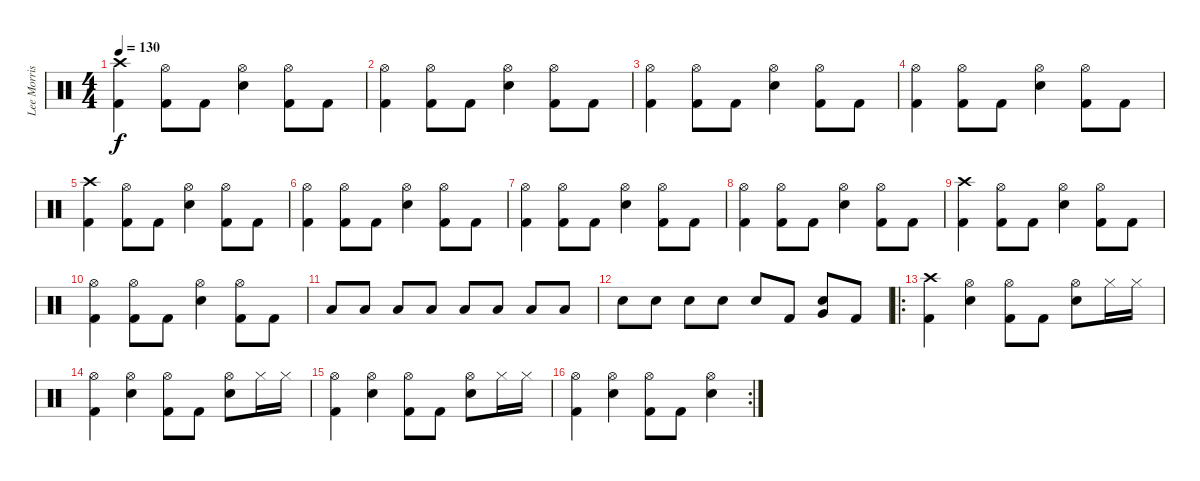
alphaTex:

\track ("Lee Morris" "Lee Morris") {instrument percussion}
\staff {score}
\articulation defaults
\ts (4 4)
\tempo 130
\clef neutral
\ks c
("Crash high (hit)" "Kick (hit) 2").4{dy f} ("Hi-Hat (open)" "Kick (hit) 2").8 "Kick (hit) 2".8 ("Hi-Hat (open)" "Electric Snare (hit)").4 ("Hi-Hat (open)" "Kick (hit) 2").8 "Kick (hit) 2".8 |
("Hi-Hat (open)" "Kick (hit) 2").4 ("Hi-Hat (open)" "Kick (hit) 2").8 "Kick (hit) 2".8 ("Hi-Hat (open)" "Electric Snare (hit)").4 ("Hi-Hat (open)" "Kick (hit) 2").8 "Kick (hit) 2".8 |
("Hi-Hat (open)" "Kick (hit) 2").4 ("Hi-Hat (open)" "Kick (hit) 2").8 "Kick (hit) 2".8 ("Hi-Hat (open)" "Electric Snare (hit)").4 ("Hi-Hat (open)" "Kick (hit) 2").8 "Kick (hit) 2".8 |
("Hi-Hat (open)" "Kick (hit) 2").4 ("Hi-Hat (open)" "Kick (hit) 2").8 "Kick (hit) 2".8 ("Hi-Hat (open)" "Electric Snare (hit)").4 ("Hi-Hat (open)" "Kick (hit) 2").8 "Kick (hit) 2".8 |
("Crash high (hit)" "Kick (hit) 2").4 ("Hi-Hat (open)" "Kick (hit) 2").8 "Kick (hit) 2".8 ("Hi-Hat (open)" "Electric Snare (hit)").4 ("Hi-Hat (open)" "Kick (hit) 2").8 "Kick (hit) 2".8 |
("Hi-Hat (open)" "Kick (hit) 2").4 ("Hi-Hat (open)" "Kick (hit) 2").8 "Kick (hit) 2".8 ("Hi-Hat (open)" "Electric Snare (hit)").4 ("Hi-Hat (open)" "Kick (hit) 2").8 "Kick (hit) 2".8 |
("Hi-Hat (open)" "Kick (hit) 2").4 ("Hi-Hat (open)" "Kick (hit) 2").8 "Kick (hit) 2".8 ("Hi-Hat (open)" "Electric Snare (hit)").4 ("Hi-Hat (open)" "Kick (hit) 2").8 "Kick (hit) 2".8 |
("Hi-Hat (open)" "Kick (hit) 2").4 ("Hi-Hat (open)" "Kick (hit) 2").8 "Kick (hit) 2".8 ("Hi-Hat (open)" "Electric Snare (hit)").4 ("Hi-Hat (open)" "Kick (hit) 2").8 "Kick (hit) 2".8 |
("Crash high (hit)" "Kick (hit) 2").4 ("Hi-Hat (open)" "Kick (hit) 2").8 "Kick (hit) 2".8 ("Hi-Hat (open)" "Electric Snare (hit)").4 ("Hi-Hat (open)" "Kick (hit) 2").8 "Kick (hit) 2".8 |
("Hi-Hat (open)" "Kick (hit) 2").4 ("Hi-Hat (open)" "Kick (hit) 2").8 "Kick (hit) 2".8 ("Hi-Hat (open)" "Electric Snare (hit)").4 ("Hi-Hat (open)" "Kick (hit) 2").8 "Kick (hit) 2".8 |
"Low Tom (hit)".8 "Low Tom (hit)".8 "Low Tom (hit)".8 "Low Tom (hit)".8 "Low Tom (hit)".8 "Low Tom (hit)".8 "Low Tom (hit)".8 "Low Tom (hit)".8 |
"Electric Snare (hit)".8 "Electric Snare (hit)".8 "Electric Snare (hit)".8 "Electric Snare (hit)".8 "Electric Snare (hit)".8 "Kick (hit) 2".8 ("Electric Snare (hit)" "Very Low Tom (hit)").8 "Kick (hit) 2".8 |
\ro
("Crash high (hit)" "Kick (hit) 2").4 ("Hi-Hat (open)" "Electric Snare (hit)").4 ("Hi-Hat (open)" "Kick (hit) 2").8 "Kick (hit) 2".8 ("Hi-Hat (open)" "Electric Snare (hit)").8 "Hi-Hat (closed)".16 "Hi-Hat (closed)".16 |
("Hi-Hat (open)" "Kick (hit) 2").4 ("Hi-Hat (open)" "Electric Snare (hit)").4 ("Hi-Hat (open)" "Kick (hit) 2").8 "Kick (hit) 2".8 ("Hi-Hat (open)" "Electric Snare (hit)").8 "Hi-Hat (closed)".16 "Hi-Hat (closed)".16 |
("Hi-Hat (open)" "Kick (hit) 2").4 ("Hi-Hat (open)" "Electric Snare (hit)").4 ("Hi-Hat (open)" "Kick (hit) 2").8 "Kick (hit) 2".8 ("Hi-Hat (open)" "Electric Snare (hit)").8 "Hi-Hat (closed)".16 "Hi-Hat (closed)".16 |
\rc 2
("Hi-Hat (open)" "Kick (hit) 2").4 ("Hi-Hat (open)" "Electric Snare (hit)").4 ("Hi-Hat (open)" "Kick (hit) 2").8 "Kick (hit) 2".8 ("Hi-Hat (open)" "Electric Snare (hit)").4
